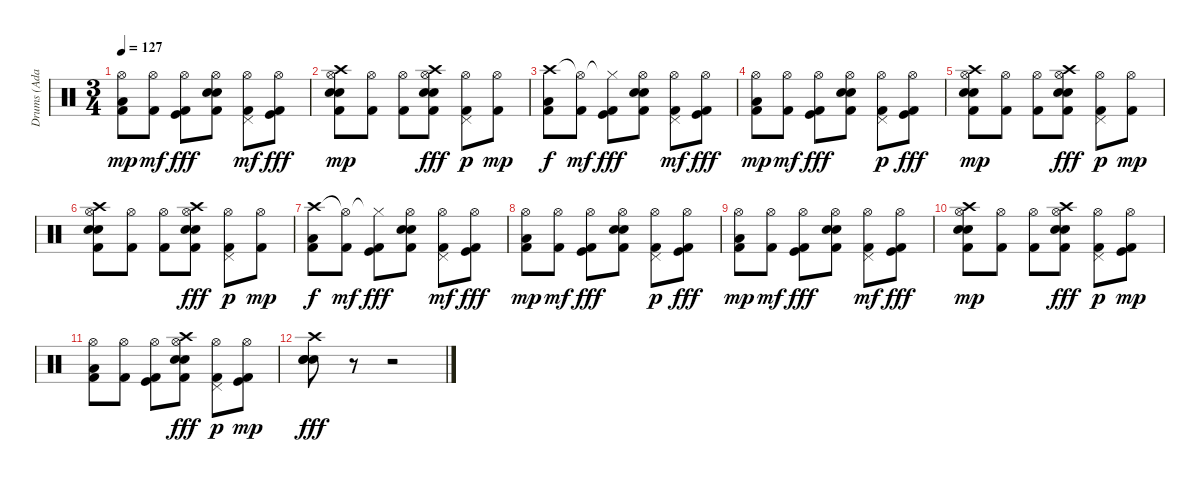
\track ("Drums (Adam)" "Drums (Ada") {instrument percussion}
\staff {score}
\articulation defaults
\ts (3 4)
\tempo 127
\clef neutral
\ks c
("Hi-Hat (open)" "Low Tom (hit)" "Kick (hit) 2").8{dy mp} ("Hi-Hat (open)" "Kick (hit) 2").8{dy mf} ("Hi-Hat (open)" "Kick (hit)" "Kick (hit) 2").8{dy fff} ("Hi-Hat (open)" "Electric Snare (hit)" "Electric Snare (hit)" "Kick (hit) 2").8 ("Hi-Hat (open)" "Pedal Hi-Hat (hit)" "Kick (hit) 2").8{dy mf} ("Hi-Hat (open)" "Kick (hit)" "Kick (hit) 2").8{dy fff} |
("Crash high (hit)" "Hi-Hat (open)" "Electric Snare (hit)" "Electric Snare (hit)" "Kick (hit) 2").8{dy mp} ("Hi-Hat (open)" "Kick (hit) 2").8 ("Hi-Hat (open)" "Kick (hit) 2").8 ("Crash high (hit)" "Hi-Hat (open)" "Electric Snare (hit)" "Electric Snare (hit)" "Kick (hit) 2").8{dy fff} ("Hi-Hat (open)" "Pedal Hi-Hat (hit)" "Kick (hit) 2").8{dy p} ("Hi-Hat (open)" "Kick (hit) 2").8{dy mp} |
("Crash high (hit)" "Low Tom (hit)" "Kick (hit) 2").8{dy f} ("Hi-Hat (open)"{t} "Kick (hit) 2").8{dy mf} ("Hi-Hat (closed)"{t} "Kick (hit)" "Kick (hit) 2").8{dy fff} ("Hi-Hat (open)" "Electric Snare (hit)" "Electric Snare (hit)" "Kick (hit) 2").8 ("Hi-Hat (open)" "Pedal Hi-Hat (hit)" "Kick (hit) 2").8{dy mf} ("Hi-Hat (open)" "Kick (hit)" "Kick (hit) 2").8{dy fff} |
("Hi-Hat (open)" "Low Tom (hit)" "Kick (hit) 2").8{dy mp} ("Hi-Hat (open)" "Kick (hit) 2").8{dy mf} ("Hi-Hat (open)" "Kick (hit)" "Kick (hit) 2").8{dy fff} ("Hi-Hat (open)" "Electric Snare (hit)" "Electric Snare (hit)" "Kick (hit) 2").8 ("Hi-Hat (open)" "Pedal Hi-Hat (hit)" "Kick (hit) 2").8{dy p} ("Hi-Hat (open)" "Kick (hit)" "Kick (hit) 2").8{dy fff} |
("Crash high (hit)" "Hi-Hat (open)" "Electric Snare (hit)" "Electric Snare (hit)" "Kick (hit) 2").8{dy mp} ("Hi-Hat (open)" "Kick (hit) 2").8 ("Hi-Hat (open)" "Kick (hit) 2").8 ("Crash high (hit)" "Hi-Hat (open)" "Electric Snare (hit)" "Electric Snare (hit)" "Kick (hit) 2").8{dy fff} ("Hi-Hat (open)" "Pedal Hi-Hat (hit)" "Kick (hit) 2").8{dy p} ("Hi-Hat (open)" "Kick (hit) 2").8{dy mp} |
("Crash high (hit)" "Hi-Hat (open)" "Electric Snare (hit)" "Electric Snare (hit)" "Kick (hit) 2").8 ("Hi-Hat (open)" "Kick (hit) 2").8 ("Hi-Hat (open)" "Kick (hit) 2").8 ("Crash high (hit)" "Hi-Hat (open)" "Electric Snare (hit)" "Electric Snare (hit)" "Kick (hit) 2").8{dy fff} ("Hi-Hat (open)" "Pedal Hi-Hat (hit)" "Kick (hit) 2").8{dy p} ("Hi-Hat (open)" "Kick (hit) 2").8{dy mp} |
("Crash high (hit)" "Low Tom (hit)" "Kick (hit) 2").8{dy f} ("Hi-Hat (open)"{t} "Kick (hit) 2").8{dy mf} ("Hi-Hat (closed)"{t} "Kick (hit)" "Kick (hit) 2").8{dy fff} ("Hi-Hat (open)" "Electric Snare (hit)" "Electric Snare (hit)" "Kick (hit) 2").8 ("Hi-Hat (open)" "Pedal Hi-Hat (hit)" "Kick (hit) 2").8{dy mf} ("Hi-Hat (open)" "Kick (hit)" "Kick (hit) 2").8{dy fff} |
("Hi-Hat (open)" "Low Tom (hit)" "Kick (hit) 2").8{dy mp} ("Hi-Hat (open)" "Kick (hit) 2").8{dy mf} ("Hi-Hat (open)" "Kick (hit)" "Kick (hit) 2").8{dy fff} ("Hi-Hat (open)" "Electric Snare (hit)" "Electric Snare (hit)" "Kick (hit) 2").8 ("Hi-Hat (open)" "Pedal Hi-Hat (hit)" "Kick (hit) 2").8{dy p} ("Hi-Hat (open)" "Kick (hit)" "Kick (hit) 2").8{dy fff} |
("Hi-Hat (open)" "Low Tom (hit)" "Kick (hit) 2").8{dy mp} ("Hi-Hat (open)" "Kick (hit) 2").8{dy mf} ("Hi-Hat (open)" "Kick (hit)" "Kick (hit) 2").8{dy fff} ("Hi-Hat (open)" "Electric Snare (hit)" "Electric Snare (hit)" "Kick (hit) 2").8 ("Hi-Hat (open)" "Pedal Hi-Hat (hit)" "Kick (hit) 2").8{dy mf} ("Hi-Hat (open)" "Kick (hit)" "Kick (hit) 2").8{dy fff} |
("Crash high (hit)" "Hi-Hat (open)" "Electric Snare (hit)" "Electric Snare (hit)" "Kick (hit) 2").8{dy mp} ("Hi-Hat (open)" "Kick (hit) 2").8 ("Hi-Hat (open)" "Kick (hit) 2").8 ("Crash high (hit)" "Hi-Hat (open)" "Electric Snare (hit)" "Electric Snare (hit)" "Kick (hit) 2").8{dy fff} ("Hi-Hat (open)" "Pedal Hi-Hat (hit)" "Kick (hit) 2").8{dy p} ("Hi-Hat (open)" "Kick (hit)" "Kick (hit) 2").8{dy mp} |
("Hi-Hat (open)" "Low Tom (hit)" "Kick (hit) 2").8 ("Hi-Hat (open)" "Kick (hit) 2").8 ("Hi-Hat (open)" "Kick (hit)" "Kick (hit) 2").8 ("Crash high (hit)" "Hi-Hat (open)" "Electric Snare (hit)" "Electric Snare (hit)" "Kick (hit) 2").8{dy fff} ("Hi-Hat (open)" "Pedal Hi-Hat (hit)" "Kick (hit) 2").8{dy p} ("Hi-Hat (open)" "Kick (hit)" "Kick (hit) 2").8{dy mp} |
("Crash high (hit)" "Electric Snare (hit)" "Electric Snare (hit)" "Snare (hit) 2").8{dy fff} r.8 r.2
